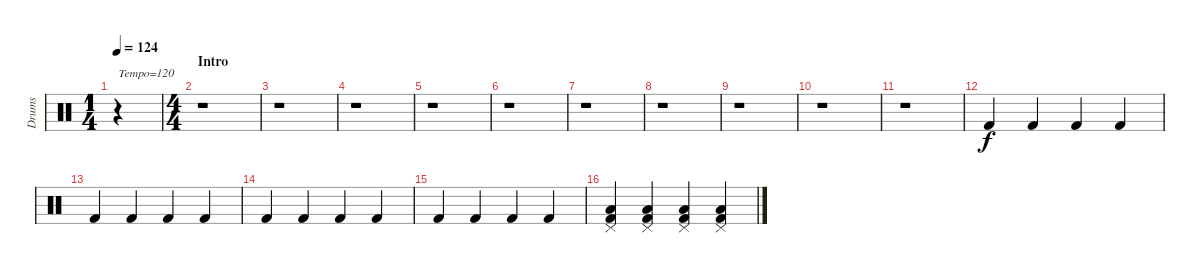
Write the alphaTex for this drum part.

\track ("Drums" "Drums") {instrument percussion}
\staff {score}
\articulation defaults
\ts (1 4)
\tempo 124
\tempo 120
\tempo 124
\clef neutral
\ks c
r.4{txt "Tempo=120" dy f} |
\ts (4 4)
\section ("" "Intro")
r.1 |
r.1 |
r.1 |
r.1 |
r.1 |
r.1 |
r.1 |
r.1 |
r.1 |
r.1 |
"Kick (hit) 2".4 "Kick (hit) 2".4 "Kick (hit) 2".4 "Kick (hit) 2".4 |
"Kick (hit) 2".4 "Kick (hit) 2".4 "Kick (hit) 2".4 "Kick (hit) 2".4 |
"Kick (hit) 2".4 "Kick (hit) 2".4 "Kick (hit) 2".4 "Kick (hit) 2".4 |
"Kick (hit) 2".4 "Kick (hit) 2".4 "Kick (hit) 2".4 "Kick (hit) 2".4 |
("Pedal Hi-Hat (hit)" "Low Floor Tom (hit)" "Kick (hit) 2").4 ("Pedal Hi-Hat (hit)" "Low Floor Tom (hit)" "Kick (hit) 2").4 ("Pedal Hi-Hat (hit)" "Low Floor Tom (hit)" "Kick (hit) 2").4 ("Pedal Hi-Hat (hit)" "Low Floor Tom (hit)" "Kick (hit) 2").4
